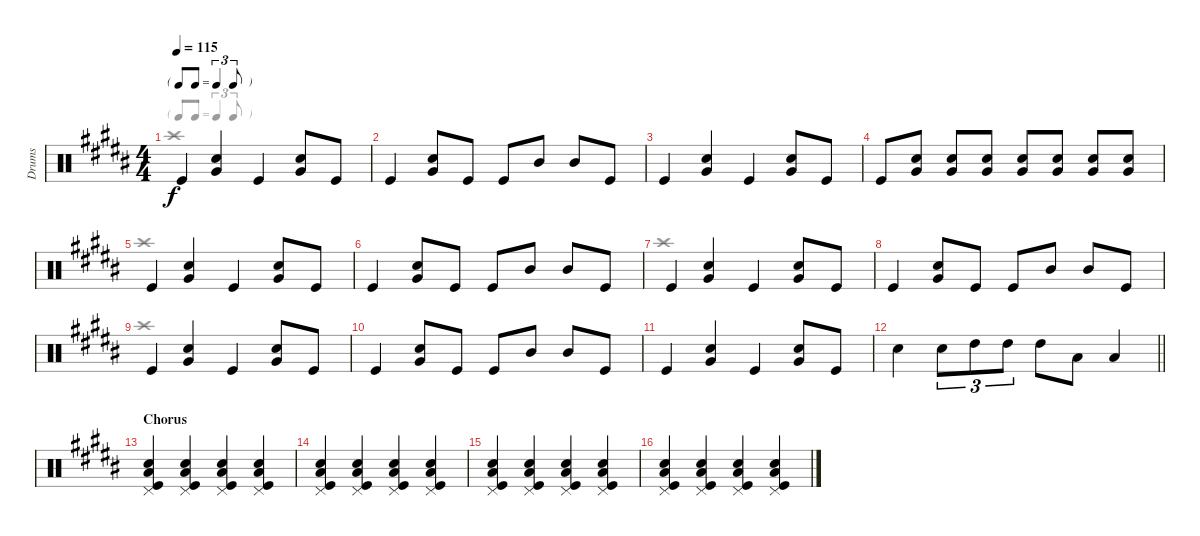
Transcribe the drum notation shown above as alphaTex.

\track ("Drums" "Drums") {instrument percussion}
\staff {score}
\articulation defaults
\voice
\ts (4 4)
\tf triplet8th
\tempo 115
\clef neutral
\ks b "Kick (hit)".4{dy f}
("Snare (hit) 2" "Very Low Tom (hit)").4 "Kick (hit)".4 ("Snare (hit) 2" "Very Low Tom (hit)").8 "Kick (hit)".8 |
"Kick (hit)".4 ("Snare (hit) 2" "Very Low Tom (hit)").8 "Kick (hit)".8 "Kick (hit)".8 "Mid Tom (hit)".8 "Mid Tom (hit)".8 "Kick (hit)".8 |
"Kick (hit)".4 ("Snare (hit) 2" "Very Low Tom (hit)").4 "Kick (hit)".4 ("Snare (hit) 2" "Very Low Tom (hit)").8 "Kick (hit)".8 |
"Kick (hit)".8 ("Snare (hit) 2" "Very Low Tom (hit)").8 ("Snare (hit) 2" "Very Low Tom (hit)").8 ("Snare (hit) 2" "Very Low Tom (hit)").8 ("Snare (hit) 2" "Very Low Tom (hit)").8 ("Snare (hit) 2" "Very Low Tom (hit)").8 ("Snare (hit) 2" "Very Low Tom (hit)").8 ("Snare (hit) 2" "Very Low Tom (hit)").8 |
"Kick (hit)".4 ("Snare (hit) 2" "Very Low Tom (hit)").4 "Kick (hit)".4 ("Snare (hit) 2" "Very Low Tom (hit)").8 "Kick (hit)".8 |
"Kick (hit)".4 ("Snare (hit) 2" "Very Low Tom (hit)").8 "Kick (hit)".8 "Kick (hit)".8 "Mid Tom (hit)".8 "Mid Tom (hit)".8 "Kick (hit)".8 |
"Kick (hit)".4 ("Snare (hit) 2" "Very Low Tom (hit)").4 "Kick (hit)".4 ("Snare (hit) 2" "Very Low Tom (hit)").8 "Kick (hit)".8 |
"Kick (hit)".4 ("Snare (hit) 2" "Very Low Tom (hit)").8 "Kick (hit)".8 "Kick (hit)".8 "Mid Tom (hit)".8 "Mid Tom (hit)".8 "Kick (hit)".8 |
"Kick (hit)".4 ("Snare (hit) 2" "Very Low Tom (hit)").4 "Kick (hit)".4 ("Snare (hit) 2" "Very Low Tom (hit)").8 "Kick (hit)".8 |
"Kick (hit)".4 ("Snare (hit) 2" "Very Low Tom (hit)").8 "Kick (hit)".8 "Kick (hit)".8 "Mid Tom (hit)".8 "Mid Tom (hit)".8 "Kick (hit)".8 |
"Kick (hit)".4 ("Snare (hit) 2" "Very Low Tom (hit)").4 "Kick (hit)".4 ("Snare (hit) 2" "Very Low Tom (hit)").8 "Kick (hit)".8 |
\barLineRight lightlight "Snare (hit) 2".4 "Snare (hit) 2".8{tu (3 2)} "High Tom (hit)".8{tu (3 2)} "High Tom (hit)".8{tu (3 2)} "High Tom (hit)".8 "Low Floor Tom (hit)".8 "Low Floor Tom (hit)".4
|
\section ("" "Chorus")
("Snare (hit) 2" "Low Floor Tom (hit)" "Pedal Hi-Hat (hit)" "Kick (hit)").4 ("Snare (hit) 2" "Low Floor Tom (hit)" "Pedal Hi-Hat (hit)" "Kick (hit)").4 ("Snare (hit) 2" "Low Floor Tom (hit)" "Pedal Hi-Hat (hit)" "Kick (hit)").4 ("Snare (hit) 2" "Low Floor Tom (hit)" "Pedal Hi-Hat (hit)" "Kick (hit)").4 |
("Snare (hit) 2" "Low Floor Tom (hit)" "Pedal Hi-Hat (hit)" "Kick (hit)").4 ("Snare (hit) 2" "Low Floor Tom (hit)" "Pedal Hi-Hat (hit)" "Kick (hit)").4 ("Snare (hit) 2" "Low Floor Tom (hit)" "Pedal Hi-Hat (hit)" "Kick (hit)").4 ("Snare (hit) 2" "Low Floor Tom (hit)" "Pedal Hi-Hat (hit)" "Kick (hit)").4 |
("Snare (hit) 2" "Low Floor Tom (hit)" "Pedal Hi-Hat (hit)" "Kick (hit)").4 ("Snare (hit) 2" "Low Floor Tom (hit)" "Pedal Hi-Hat (hit)" "Kick (hit)").4 ("Snare (hit) 2" "Low Floor Tom (hit)" "Pedal Hi-Hat (hit)" "Kick (hit)").4 ("Snare (hit) 2" "Low Floor Tom (hit)" "Pedal Hi-Hat (hit)" "Kick (hit)").4 |
("Snare (hit) 2" "Low Floor Tom (hit)" "Pedal Hi-Hat (hit)" "Kick (hit)").4 ("Snare (hit) 2" "Low Floor Tom (hit)" "Pedal Hi-Hat (hit)" "Kick (hit)").4 ("Snare (hit) 2" "Low Floor Tom (hit)" "Pedal Hi-Hat (hit)" "Kick (hit)").4 ("Snare (hit) 2" "Low Floor Tom (hit)" "Pedal Hi-Hat (hit)" "Kick (hit)").4
\voice
\clef neutral
\ottava regular
\simile none
\ks b "Crash high (hit)".1{dy f}
|
|
|
|
"Crash high (hit)".1 |
|
"Crash high (hit)".1 |
|
"Crash high (hit)".1 |
|
|
\barLineRight lightlight
|
|
|
|
